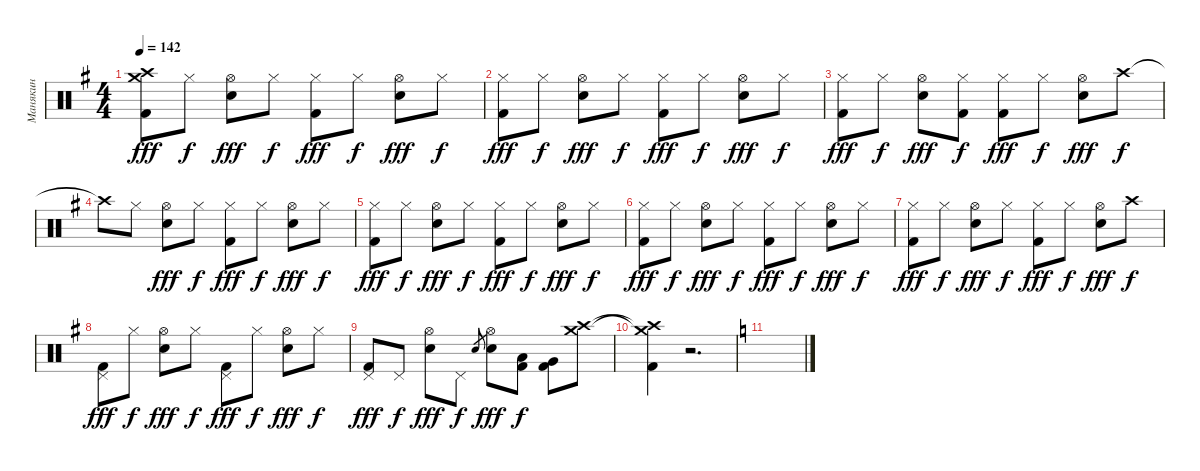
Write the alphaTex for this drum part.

\track ("Манякин" "Манякин") {instrument percussion}
\staff {score}
\articulation defaults
\ts (4 4)
\tempo 142
\clef neutral
\ks eminor
("Crash high (hit)"{t} "Crash medium (hit)"{t} "Kick (hit) 2").8{dy fff} "Hi-Hat (closed)".8{dy f} ("Hi-Hat (open)" "Electric Snare (hit)").8{dy fff} "Hi-Hat (closed)".8{dy f} ("Hi-Hat (closed)" "Kick (hit) 2").8{dy fff} "Hi-Hat (closed)".8{dy f} ("Hi-Hat (open)" "Electric Snare (hit)").8{dy fff} "Hi-Hat (closed)".8{dy f} |
("Hi-Hat (closed)" "Kick (hit) 2").8{dy fff} "Hi-Hat (closed)".8{dy f} ("Hi-Hat (open)" "Electric Snare (hit)").8{dy fff} "Hi-Hat (closed)".8{dy f} ("Hi-Hat (closed)" "Kick (hit) 2").8{dy fff} "Hi-Hat (closed)".8{dy f} ("Hi-Hat (open)" "Electric Snare (hit)").8{dy fff} "Hi-Hat (closed)".8{dy f} |
("Hi-Hat (closed)" "Kick (hit) 2").8{dy fff} "Hi-Hat (closed)".8{dy f} ("Hi-Hat (open)" "Electric Snare (hit)").8{dy fff} ("Hi-Hat (closed)" "Kick (hit) 2").8{dy f} ("Hi-Hat (closed)" "Kick (hit) 2").8{dy fff} "Hi-Hat (closed)".8{dy f} ("Hi-Hat (open)" "Electric Snare (hit)").8{dy fff} "Crash high (hit)".8{dy f} |
"Crash high (hit)"{t}.8 "Hi-Hat (closed)".8 ("Hi-Hat (open)" "Electric Snare (hit)").8{dy fff} "Hi-Hat (closed)".8{dy f} ("Hi-Hat (closed)" "Kick (hit) 2").8{dy fff} "Hi-Hat (closed)".8{dy f} ("Hi-Hat (open)" "Electric Snare (hit)").8{dy fff} "Hi-Hat (closed)".8{dy f} |
("Hi-Hat (closed)" "Kick (hit) 2").8{dy fff} "Hi-Hat (closed)".8{dy f} ("Hi-Hat (open)" "Electric Snare (hit)").8{dy fff} "Hi-Hat (closed)".8{dy f} ("Hi-Hat (closed)" "Kick (hit) 2").8{dy fff} "Hi-Hat (closed)".8{dy f} ("Hi-Hat (open)" "Electric Snare (hit)").8{dy fff} "Hi-Hat (closed)".8{dy f} |
("Hi-Hat (closed)" "Kick (hit) 2").8{dy fff} "Hi-Hat (closed)".8{dy f} ("Hi-Hat (open)" "Electric Snare (hit)").8{dy fff} "Hi-Hat (closed)".8{dy f} ("Hi-Hat (closed)" "Kick (hit) 2").8{dy fff} "Hi-Hat (closed)".8{dy f} ("Hi-Hat (open)" "Electric Snare (hit)").8{dy fff} "Hi-Hat (closed)".8{dy f} |
("Hi-Hat (closed)" "Kick (hit) 2").8{dy fff} "Hi-Hat (closed)".8{dy f} ("Hi-Hat (open)" "Electric Snare (hit)").8{dy fff} "Hi-Hat (closed)".8{dy f} ("Hi-Hat (closed)" "Kick (hit) 2").8{dy fff} "Hi-Hat (closed)".8{dy f} ("Hi-Hat (open)" "Electric Snare (hit)").8{dy fff} "Crash high (hit)".8{dy f} |
("Pedal Hi-Hat (hit)" "Kick (hit) 2").8{dy fff} "Hi-Hat (closed)".8{dy f} ("Hi-Hat (open)" "Electric Snare (hit)").8{dy fff} "Hi-Hat (closed)".8{dy f} ("Pedal Hi-Hat (hit)" "Kick (hit) 2").8{dy fff} "Hi-Hat (closed)".8{dy f} ("Hi-Hat (open)" "Electric Snare (hit)").8{dy fff} "Hi-Hat (closed)".8{dy f} |
("Pedal Hi-Hat (hit)" "Kick (hit) 2").8{dy fff} "Pedal Hi-Hat (hit)".8{dy f} ("Hi-Hat (open)" "Electric Snare (hit)").8{dy fff} "Pedal Hi-Hat (hit)".8{dy f} "Electric Snare (hit)".8{gr} ("Hi-Hat (open)" "Electric Snare (hit)").8{dy fff} ("Low Tom (hit)" "Kick (hit) 2").8{dy f} ("Very Low Tom (hit)" "Kick (hit) 2").8 ("Crash high (hit)" "Crash medium (hit)").8 |
("Crash medium (hit)"{t} "Crash high (hit)"{t} "Kick (hit) 2").4 r.2{d} |
\ks c
